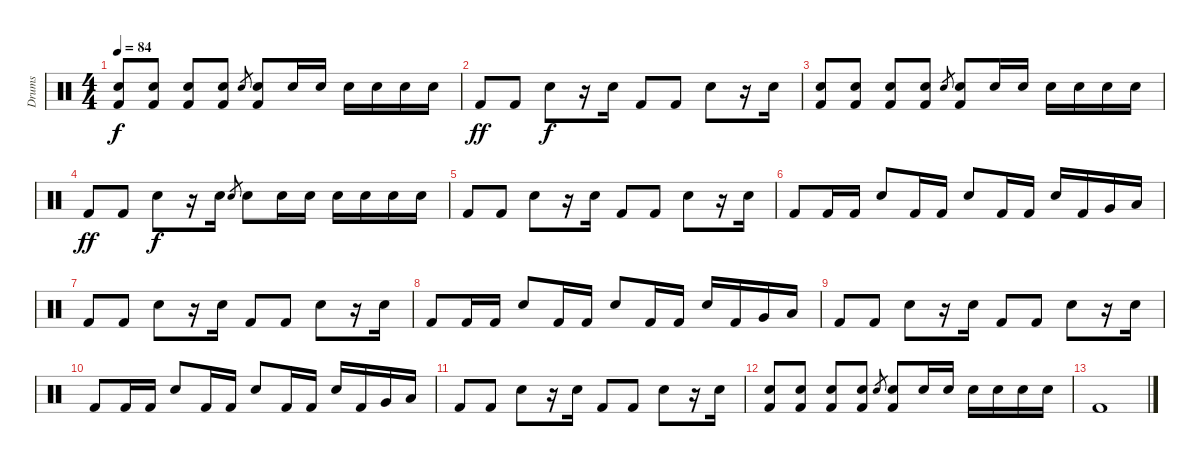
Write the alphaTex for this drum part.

\track ("Drums" "Drums") {instrument percussion}
\staff {score}
\articulation defaults
\ts (4 4)
\tempo 84
\clef neutral
\ks c
("Snare (hit) 2" "Kick (hit) 2").8{dy f} ("Snare (hit) 2" "Kick (hit) 2").8 ("Snare (hit) 2" "Kick (hit) 2").8 ("Snare (hit) 2" "Kick (hit) 2").8 "Snare (hit) 2".8{gr} ("Snare (hit) 2" "Kick (hit) 2").8 "Snare (hit) 2".16 "Snare (hit) 2".16 "Snare (hit) 2".16 "Snare (hit) 2".16 "Snare (hit) 2".16 "Snare (hit) 2".16 |
"Kick (hit) 2".8{dy ff} "Kick (hit) 2".8 "Snare (hit) 2".8{dy f} r.16 "Snare (hit) 2".16 "Kick (hit) 2".8 "Kick (hit) 2".8 "Snare (hit) 2".8 r.16 "Snare (hit) 2".16 |
("Snare (hit) 2" "Kick (hit) 2").8 ("Snare (hit) 2" "Kick (hit) 2").8 ("Snare (hit) 2" "Kick (hit) 2").8 ("Snare (hit) 2" "Kick (hit) 2").8 "Snare (hit) 2".8{gr} ("Snare (hit) 2" "Kick (hit) 2").8 "Snare (hit) 2".16 "Snare (hit) 2".16 "Snare (hit) 2".16 "Snare (hit) 2".16 "Snare (hit) 2".16 "Snare (hit) 2".16 |
"Kick (hit) 2".8{dy ff} "Kick (hit) 2".8 "Snare (hit) 2".8{dy f} r.16 "Snare (hit) 2".16 "Snare (hit) 2".8{gr} "Snare (hit) 2".8 "Snare (hit) 2".16 "Snare (hit) 2".16 "Snare (hit) 2".16 "Snare (hit) 2".16 "Snare (hit) 2".16 "Snare (hit) 2".16 |
"Kick (hit) 2".8 "Kick (hit) 2".8 "Snare (hit) 2".8 r.16 "Snare (hit) 2".16 "Kick (hit) 2".8 "Kick (hit) 2".8 "Snare (hit) 2".8 r.16 "Snare (hit) 2".16 |
"Kick (hit) 2".8 "Kick (hit) 2".16 "Kick (hit) 2".16 "Snare (hit) 2".8 "Kick (hit) 2".16 "Kick (hit) 2".16 "Snare (hit) 2".8 "Kick (hit) 2".16 "Kick (hit) 2".16 "Snare (hit) 2".16 "Kick (hit) 2".16 "Very Low Tom (hit)".16 "Low Floor Tom (hit)".16 |
"Kick (hit) 2".8 "Kick (hit) 2".8 "Snare (hit) 2".8 r.16 "Snare (hit) 2".16 "Kick (hit) 2".8 "Kick (hit) 2".8 "Snare (hit) 2".8 r.16 "Snare (hit) 2".16 |
"Kick (hit) 2".8 "Kick (hit) 2".16 "Kick (hit) 2".16 "Snare (hit) 2".8 "Kick (hit) 2".16 "Kick (hit) 2".16 "Snare (hit) 2".8 "Kick (hit) 2".16 "Kick (hit) 2".16 "Snare (hit) 2".16 "Kick (hit) 2".16 "Very Low Tom (hit)".16 "Low Floor Tom (hit)".16 |
"Kick (hit) 2".8 "Kick (hit) 2".8 "Snare (hit) 2".8 r.16 "Snare (hit) 2".16 "Kick (hit) 2".8 "Kick (hit) 2".8 "Snare (hit) 2".8 r.16 "Snare (hit) 2".16 |
"Kick (hit) 2".8 "Kick (hit) 2".16 "Kick (hit) 2".16 "Snare (hit) 2".8 "Kick (hit) 2".16 "Kick (hit) 2".16 "Snare (hit) 2".8 "Kick (hit) 2".16 "Kick (hit) 2".16 "Snare (hit) 2".16 "Kick (hit) 2".16 "Very Low Tom (hit)".16 "Low Floor Tom (hit)".16 |
"Kick (hit) 2".8 "Kick (hit) 2".8 "Snare (hit) 2".8 r.16 "Snare (hit) 2".16 "Kick (hit) 2".8 "Kick (hit) 2".8 "Snare (hit) 2".8 r.16 "Snare (hit) 2".16 |
("Snare (hit) 2" "Kick (hit) 2").8 ("Snare (hit) 2" "Kick (hit) 2").8 ("Snare (hit) 2" "Kick (hit) 2").8 ("Snare (hit) 2" "Kick (hit) 2").8 "Snare (hit) 2".8{gr} ("Snare (hit) 2" "Kick (hit) 2").8 "Snare (hit) 2".16 "Snare (hit) 2".16 "Snare (hit) 2".16 "Snare (hit) 2".16 "Snare (hit) 2".16 "Snare (hit) 2".16 |
"Kick (hit) 2".1
